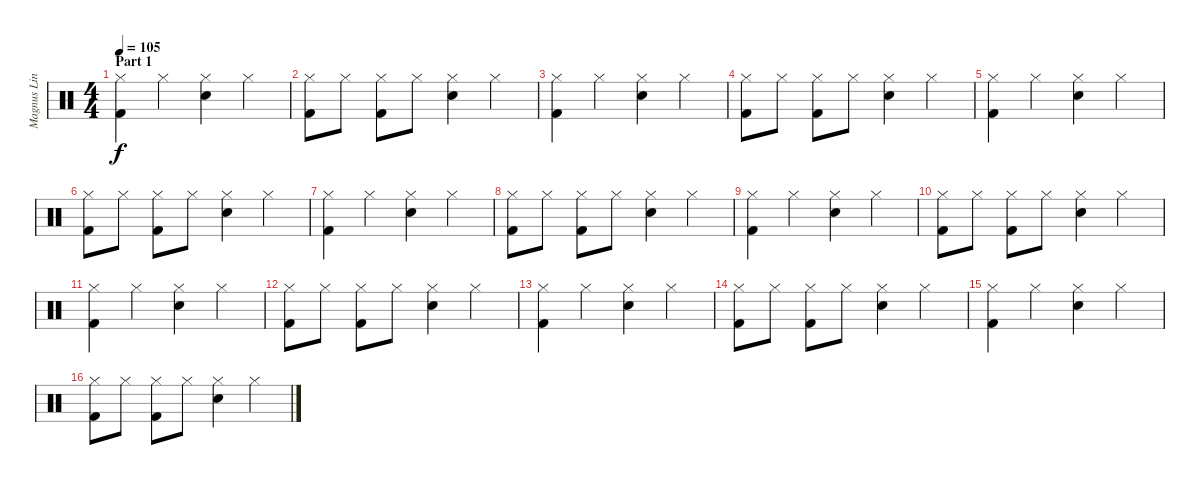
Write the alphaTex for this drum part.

\track ("Magnus Lindberg" "Magnus Lin") {instrument percussion}
\staff {score}
\articulation defaults
\ts (4 4)
\section ("" "Part 1")
\tempo 105
\clef neutral
\ks c
("Hi-Hat (closed)" "Kick (hit) 2").4{dy f} "Hi-Hat (closed)".4 ("Hi-Hat (closed)" "Snare (hit) 2").4 "Hi-Hat (closed)".4 |
("Hi-Hat (closed)" "Kick (hit) 2").8 "Hi-Hat (closed)".8 ("Hi-Hat (closed)" "Kick (hit) 2").8 "Hi-Hat (closed)".8 ("Hi-Hat (closed)" "Snare (hit) 2").4 "Hi-Hat (closed)".4 |
("Hi-Hat (closed)" "Kick (hit) 2").4 "Hi-Hat (closed)".4 ("Hi-Hat (closed)" "Snare (hit) 2").4 "Hi-Hat (closed)".4 |
("Hi-Hat (closed)" "Kick (hit) 2").8 "Hi-Hat (closed)".8 ("Hi-Hat (closed)" "Kick (hit) 2").8 "Hi-Hat (closed)".8 ("Hi-Hat (closed)" "Snare (hit) 2").4 "Hi-Hat (closed)".4 |
("Hi-Hat (closed)" "Kick (hit) 2").4 "Hi-Hat (closed)".4 ("Hi-Hat (closed)" "Snare (hit) 2").4 "Hi-Hat (closed)".4 |
("Hi-Hat (closed)" "Kick (hit) 2").8 "Hi-Hat (closed)".8 ("Hi-Hat (closed)" "Kick (hit) 2").8 "Hi-Hat (closed)".8 ("Hi-Hat (closed)" "Snare (hit) 2").4 "Hi-Hat (closed)".4 |
("Hi-Hat (closed)" "Kick (hit) 2").4 "Hi-Hat (closed)".4 ("Hi-Hat (closed)" "Snare (hit) 2").4 "Hi-Hat (closed)".4 |
("Hi-Hat (closed)" "Kick (hit) 2").8 "Hi-Hat (closed)".8 ("Hi-Hat (closed)" "Kick (hit) 2").8 "Hi-Hat (closed)".8 ("Hi-Hat (closed)" "Snare (hit) 2").4 "Hi-Hat (closed)".4 |
("Hi-Hat (closed)" "Kick (hit) 2").4 "Hi-Hat (closed)".4 ("Hi-Hat (closed)" "Snare (hit) 2").4 "Hi-Hat (closed)".4 |
("Hi-Hat (closed)" "Kick (hit) 2").8 "Hi-Hat (closed)".8 ("Hi-Hat (closed)" "Kick (hit) 2").8 "Hi-Hat (closed)".8 ("Hi-Hat (closed)" "Snare (hit) 2").4 "Hi-Hat (closed)".4 |
("Hi-Hat (closed)" "Kick (hit) 2").4 "Hi-Hat (closed)".4 ("Hi-Hat (closed)" "Snare (hit) 2").4 "Hi-Hat (closed)".4 |
("Hi-Hat (closed)" "Kick (hit) 2").8 "Hi-Hat (closed)".8 ("Hi-Hat (closed)" "Kick (hit) 2").8 "Hi-Hat (closed)".8 ("Hi-Hat (closed)" "Snare (hit) 2").4 "Hi-Hat (closed)".4 |
("Hi-Hat (closed)" "Kick (hit) 2").4 "Hi-Hat (closed)".4 ("Hi-Hat (closed)" "Snare (hit) 2").4 "Hi-Hat (closed)".4 |
("Hi-Hat (closed)" "Kick (hit) 2").8 "Hi-Hat (closed)".8 ("Hi-Hat (closed)" "Kick (hit) 2").8 "Hi-Hat (closed)".8 ("Hi-Hat (closed)" "Snare (hit) 2").4 "Hi-Hat (closed)".4 |
("Hi-Hat (closed)" "Kick (hit) 2").4 "Hi-Hat (closed)".4 ("Hi-Hat (closed)" "Snare (hit) 2").4 "Hi-Hat (closed)".4 |
("Hi-Hat (closed)" "Kick (hit) 2").8 "Hi-Hat (closed)".8 ("Hi-Hat (closed)" "Kick (hit) 2").8 "Hi-Hat (closed)".8 ("Hi-Hat (closed)" "Snare (hit) 2").4 "Hi-Hat (closed)".4
